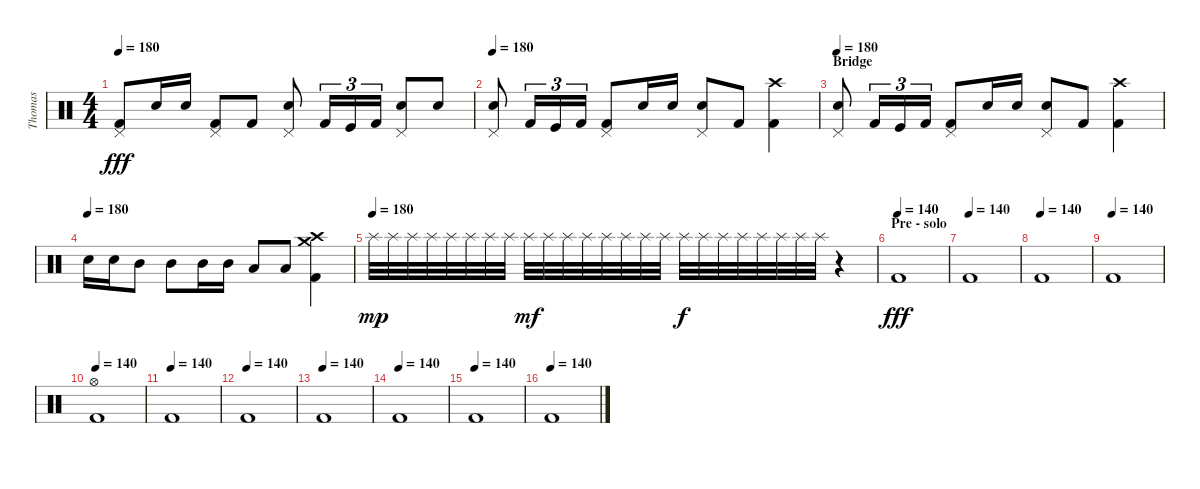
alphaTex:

\track ("Thomas" "Thomas") {instrument percussion}
\staff {score}
\articulation defaults
\ts (4 4)
\tempo 180
\clef neutral
\ks c
("Pedal Hi-Hat (hit)" "Kick (hit) 2").8{dy fff} "Snare (hit) 2".16 "Snare (hit) 2".16 ("Pedal Hi-Hat (hit)" "Kick (hit) 2").8 "Kick (hit) 2".8 ("Pedal Hi-Hat (hit)" "Snare (hit) 2").8 "Kick (hit) 2".16{tu (3 2)} "Kick (hit)".16{tu (3 2)} "Kick (hit) 2".16{tu (3 2)} ("Pedal Hi-Hat (hit)" "Snare (hit) 2").8 "Snare (hit) 2".8 |
\tempo 180
("Pedal Hi-Hat (hit)" "Snare (hit) 2").8 "Kick (hit) 2".16{tu (3 2)} "Kick (hit)".16{tu (3 2)} "Kick (hit) 2".16{tu (3 2)} ("Pedal Hi-Hat (hit)" "Kick (hit) 2").8 "Snare (hit) 2".16 "Snare (hit) 2".16 ("Pedal Hi-Hat (hit)" "Snare (hit) 2").8 "Kick (hit) 2".8 ("Crash high (hit)" "Kick (hit) 2").4 |
\section ("" "Bridge")
\tempo 180
("Pedal Hi-Hat (hit)" "Snare (hit) 2").8 "Kick (hit) 2".16{tu (3 2)} "Kick (hit)".16{tu (3 2)} "Kick (hit) 2".16{tu (3 2)} ("Pedal Hi-Hat (hit)" "Kick (hit) 2").8 "Snare (hit) 2".16 "Snare (hit) 2".16 ("Pedal Hi-Hat (hit)" "Snare (hit) 2").8 "Kick (hit) 2".8 ("Crash high (hit)" "Kick (hit) 2").4 |
\tempo (180)
"Snare (hit) 2".16 "Snare (hit) 2".16 "Mid Tom (hit)".8 "Mid Tom (hit)".8 "Mid Tom (hit)".16 "Mid Tom (hit)".16 "Low Tom (hit)".8 "Low Tom (hit)".8 ("Crash high (hit)" "Crash medium (hit)" "Kick (hit) 2").4 |
\tempo (180)
"Splash (hit)".32{dy mp} "Splash (hit)".32 "Splash (hit)".32 "Splash (hit)".32 "Splash (hit)".32 "Splash (hit)".32 "Splash (hit)".32 "Splash (hit)".32 "Splash (hit)".32{dy mf} "Splash (hit)".32 "Splash (hit)".32 "Splash (hit)".32 "Splash (hit)".32 "Splash (hit)".32 "Splash (hit)".32 "Splash (hit)".32 "Splash (hit)".32{dy f} "Splash (hit)".32 "Splash (hit)".32 "Splash (hit)".32 "Splash (hit)".32 "Splash (hit)".32 "Splash (hit)".32 "Splash (hit)".32 r.4 |
\section ("" "Pre - solo")
\tempo (140)
"Kick (hit) 2".1{dy fff} |
\tempo (140)
"Kick (hit) 2".1 |
\tempo (140)
"Kick (hit) 2".1 |
\tempo (140)
"Kick (hit) 2".1 |
\tempo 140
("Hi-Hat (open)" "Kick (hit) 2").1 |
\tempo (140)
"Kick (hit) 2".1 |
\tempo (140)
"Kick (hit) 2".1 |
\tempo (140)
"Kick (hit) 2".1 |
\tempo (140)
"Kick (hit) 2".1 |
\tempo (140)
"Kick (hit) 2".1 |
\tempo (140)
"Kick (hit) 2".1
